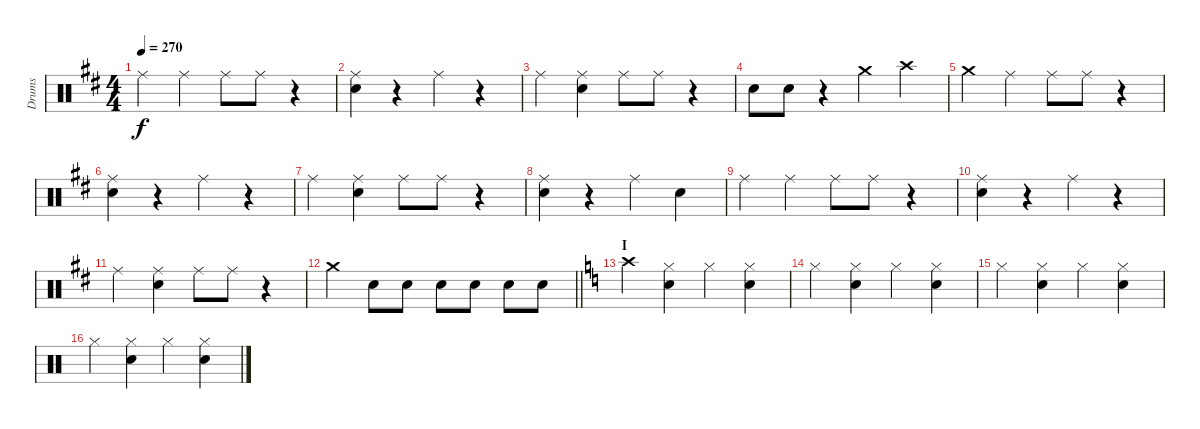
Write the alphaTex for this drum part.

\track ("Drums" "Drums") {instrument percussion}
\staff {score}
\articulation defaults
\ts (4 4)
\tempo 270
\clef neutral
\ks d "Ride (middle)".4{dy f} "Ride (middle)".4 "Ride (middle)".8 "Ride (middle)".8
r.4 |
("Ride (middle)" "Snare (hit) 2").4 r.4 "Ride (middle)".4 r.4 |
"Ride (middle)".4 ("Ride (middle)" "Snare (hit) 2").4 "Ride (middle)".8 "Ride (middle)".8 r.4 |
"Snare (hit) 2".8 "Snare (hit) 2".8 r.4 "Crash medium (hit)".4 "Crash high (hit)".4 |
"Crash medium (hit)".4 "Ride (middle)".4 "Ride (middle)".8 "Ride (middle)".8 r.4 |
("Ride (middle)" "Snare (hit) 2").4 r.4 "Ride (middle)".4 r.4 |
"Ride (middle)".4 ("Ride (middle)" "Snare (hit) 2").4 "Ride (middle)".8 "Ride (middle)".8 r.4 |
("Ride (middle)" "Snare (hit) 2").4 r.4 "Ride (middle)".4 "Snare (hit) 2".4 |
"Ride (middle)".4 "Ride (middle)".4 "Ride (middle)".8 "Ride (middle)".8 r.4 |
("Ride (middle)" "Snare (hit) 2").4 r.4 "Ride (middle)".4 r.4 |
"Ride (middle)".4 ("Ride (middle)" "Snare (hit) 2").4 "Ride (middle)".8 "Ride (middle)".8 r.4 |
\barLineRight lightlight "Crash medium (hit)".4 "Snare (hit) 2".8 "Snare (hit) 2".8 "Snare (hit) 2".8 "Snare (hit) 2".8 "Snare (hit) 2".8 "Snare (hit) 2".8
|
\section ("" "I")
\ks c "Crash high (hit)".4
("Hi-Hat (closed)" "Snare (hit) 2").4 "Hi-Hat (closed)".4 ("Hi-Hat (closed)" "Snare (hit) 2").4 |
"Hi-Hat (closed)".4 ("Hi-Hat (closed)" "Snare (hit) 2").4 "Hi-Hat (closed)".4 ("Hi-Hat (closed)" "Snare (hit) 2").4 |
"Hi-Hat (closed)".4 ("Hi-Hat (closed)" "Snare (hit) 2").4 "Hi-Hat (closed)".4 ("Hi-Hat (closed)" "Snare (hit) 2").4 |
"Hi-Hat (closed)".4 ("Hi-Hat (closed)" "Snare (hit) 2").4 "Hi-Hat (closed)".4 ("Hi-Hat (closed)" "Snare (hit) 2").4
